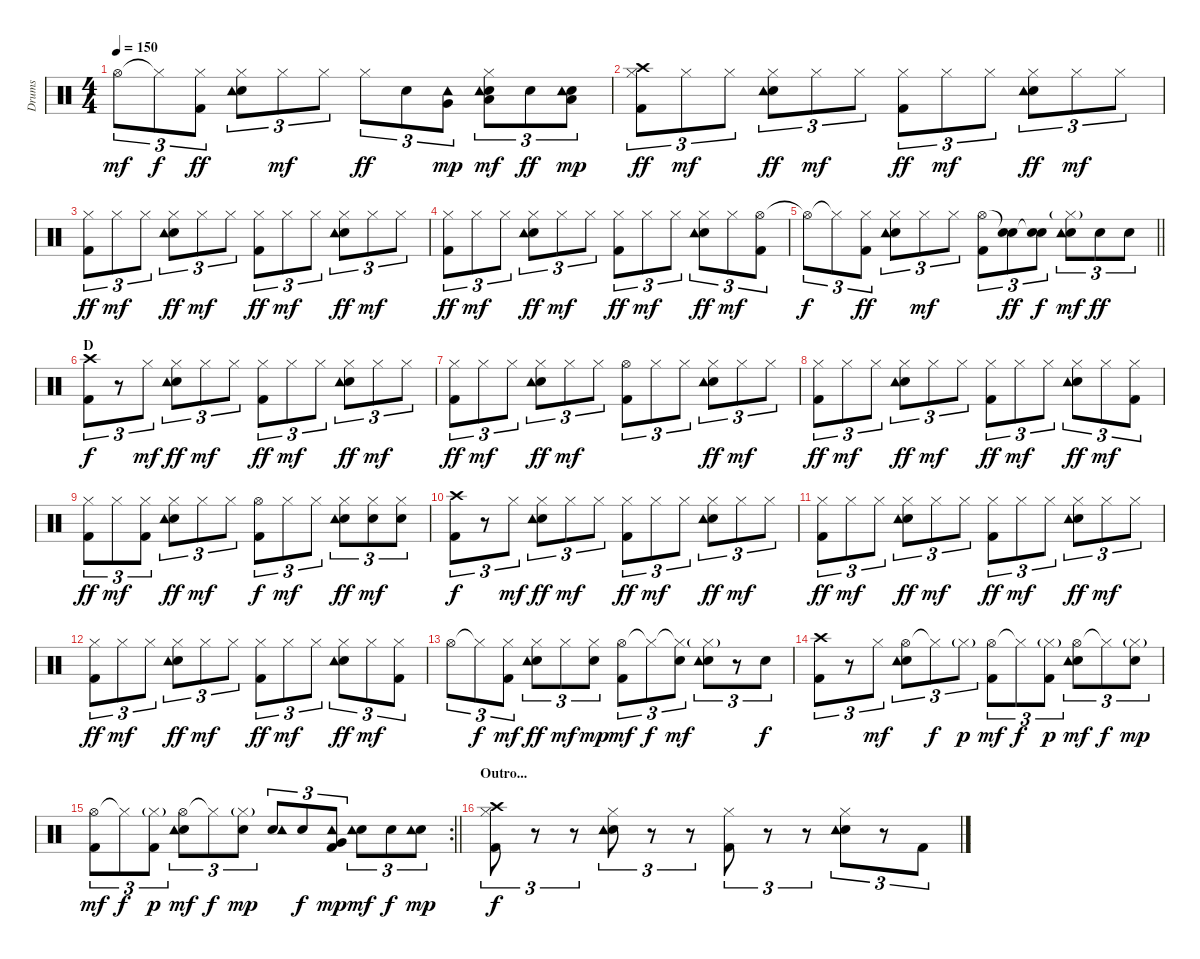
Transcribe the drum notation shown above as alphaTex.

\track ("Drums" "Drums") {instrument percussion}
\staff {score}
\articulation defaults
\ts (4 4)
\tempo 150
\clef neutral
\ks c "Hi-Hat (open)".8{tu (3 2) dy mf} "Hi-Hat (closed)"{t}.8{tu (3 2) dy f}
("Hi-Hat (closed)" "Kick (hit) 2").8{tu (3 2) dy ff} ("Hi-Hat (closed)" "Electric Snare (hit)" "Tambourine (hit)").8{tu (3 2)} "Hi-Hat (closed)".8{tu (3 2) dy mf} "Hi-Hat (closed)".8{tu (3 2)} "Hi-Hat (closed)".8{tu (3 2) dy ff} "Electric Snare (hit)".8{tu (3 2)} ("Very Low Tom (hit)" "Tambourine (hit)").8{tu (3 2) dy mp} ("Hi-Hat (closed)" "Low Floor Tom (hit)" "Electric Snare (hit)" "Tambourine (hit)").8{tu (3 2) dy mf} "Electric Snare (hit)".8{tu (3 2) dy ff} ("Low Floor Tom (hit)" "Electric Snare (hit)" "Tambourine (hit)").8{tu (3 2) dy mp} |
("Crash high (hit)" "Hi-Hat (closed)" "Kick (hit) 2").8{tu (3 2) dy ff} "Hi-Hat (closed)".8{tu (3 2) dy mf} "Hi-Hat (closed)".8{tu (3 2)} ("Hi-Hat (closed)" "Electric Snare (hit)" "Tambourine (hit)").8{tu (3 2) dy ff} "Hi-Hat (closed)".8{tu (3 2) dy mf} "Hi-Hat (closed)".8{tu (3 2)} ("Hi-Hat (closed)" "Kick (hit) 2").8{tu (3 2) dy ff} "Hi-Hat (closed)".8{tu (3 2) dy mf} "Hi-Hat (closed)".8{tu (3 2)} ("Hi-Hat (closed)" "Electric Snare (hit)" "Tambourine (hit)").8{tu (3 2) dy ff} "Hi-Hat (closed)".8{tu (3 2) dy mf} "Hi-Hat (closed)".8{tu (3 2)} |
("Hi-Hat (closed)" "Kick (hit) 2").8{tu (3 2) dy ff} "Hi-Hat (closed)".8{tu (3 2) dy mf} "Hi-Hat (closed)".8{tu (3 2)} ("Hi-Hat (closed)" "Electric Snare (hit)" "Tambourine (hit)").8{tu (3 2) dy ff} "Hi-Hat (closed)".8{tu (3 2) dy mf} "Hi-Hat (closed)".8{tu (3 2)} ("Hi-Hat (closed)" "Kick (hit) 2").8{tu (3 2) dy ff} "Hi-Hat (closed)".8{tu (3 2) dy mf} "Hi-Hat (closed)".8{tu (3 2)} ("Hi-Hat (closed)" "Electric Snare (hit)" "Tambourine (hit)").8{tu (3 2) dy ff} "Hi-Hat (closed)".8{tu (3 2) dy mf} "Hi-Hat (closed)".8{tu (3 2)} |
("Hi-Hat (closed)" "Kick (hit) 2").8{tu (3 2) dy ff} "Hi-Hat (closed)".8{tu (3 2) dy mf} "Hi-Hat (closed)".8{tu (3 2)} ("Hi-Hat (closed)" "Electric Snare (hit)" "Tambourine (hit)").8{tu (3 2) dy ff} "Hi-Hat (closed)".8{tu (3 2) dy mf} "Hi-Hat (closed)".8{tu (3 2)} ("Hi-Hat (closed)" "Kick (hit) 2").8{tu (3 2) dy ff} "Hi-Hat (closed)".8{tu (3 2) dy mf} "Hi-Hat (closed)".8{tu (3 2)} ("Hi-Hat (closed)" "Electric Snare (hit)" "Tambourine (hit)").8{tu (3 2) dy ff} "Hi-Hat (closed)".8{tu (3 2) dy mf} ("Hi-Hat (open)" "Kick (hit) 2").8{tu (3 2)} |
\barLineRight lightlight "Hi-Hat (open)"{t}.8{tu (3 2) dy f} "Hi-Hat (closed)"{t}.8{tu (3 2)}
("Hi-Hat (closed)" "Kick (hit) 2").8{tu (3 2) dy ff} ("Hi-Hat (closed)" "Electric Snare (hit)" "Tambourine (hit)").8{tu (3 2)} "Hi-Hat (closed)".8{tu (3 2) dy mf} "Hi-Hat (closed)".8{tu (3 2)} ("Hi-Hat (open)" "Kick (hit) 2").8{tu (3 2)} ("Snare (hit)"{t} "Electric Snare (hit)").8{tu (3 2) dy ff} ("Snare (hit)"{t} "Electric Snare (hit)").8{tu (3 2) dy f} ("Hi-Hat (closed)"{g} "Electric Snare (hit)" "Tambourine (hit)").8{tu (3 2) dy mf} "Electric Snare (hit)".8{tu (3 2) dy ff} "Electric Snare (hit)".8{tu (3 2)} |
\section ("" "D")
("Crash high (hit)" "Kick (hit) 2").8{tu (3 2) dy f} r.8{tu (3 2)} "Hi-Hat (closed)".8{tu (3 2) dy mf} ("Hi-Hat (closed)" "Electric Snare (hit)" "Tambourine (hit)").8{tu (3 2) dy ff} "Hi-Hat (closed)".8{tu (3 2) dy mf} "Hi-Hat (closed)".8{tu (3 2)} ("Hi-Hat (closed)" "Kick (hit) 2").8{tu (3 2) dy ff} "Hi-Hat (closed)".8{tu (3 2) dy mf} "Hi-Hat (closed)".8{tu (3 2)} ("Hi-Hat (closed)" "Electric Snare (hit)" "Tambourine (hit)").8{tu (3 2) dy ff} "Hi-Hat (closed)".8{tu (3 2) dy mf} "Hi-Hat (closed)".8{tu (3 2)} |
("Hi-Hat (closed)" "Kick (hit) 2").8{tu (3 2) dy ff} "Hi-Hat (closed)".8{tu (3 2) dy mf} "Hi-Hat (closed)".8{tu (3 2)} ("Hi-Hat (closed)" "Electric Snare (hit)" "Tambourine (hit)").8{tu (3 2) dy ff} "Hi-Hat (closed)".8{tu (3 2) dy mf} "Hi-Hat (closed)".8{tu (3 2)} ("Hi-Hat (open)" "Kick (hit) 2").8{tu (3 2)} "Hi-Hat (closed)".8{tu (3 2)} "Hi-Hat (closed)".8{tu (3 2)} ("Hi-Hat (closed)" "Electric Snare (hit)" "Tambourine (hit)").8{tu (3 2) dy ff} "Hi-Hat (closed)".8{tu (3 2) dy mf} "Hi-Hat (closed)".8{tu (3 2)} |
("Hi-Hat (closed)" "Kick (hit) 2").8{tu (3 2) dy ff} "Hi-Hat (closed)".8{tu (3 2) dy mf} "Hi-Hat (closed)".8{tu (3 2)} ("Hi-Hat (closed)" "Electric Snare (hit)" "Tambourine (hit)").8{tu (3 2) dy ff} "Hi-Hat (closed)".8{tu (3 2) dy mf} "Hi-Hat (closed)".8{tu (3 2)} ("Hi-Hat (closed)" "Kick (hit) 2").8{tu (3 2) dy ff} "Hi-Hat (closed)".8{tu (3 2) dy mf} "Hi-Hat (closed)".8{tu (3 2)} ("Hi-Hat (closed)" "Electric Snare (hit)" "Tambourine (hit)").8{tu (3 2) dy ff} "Hi-Hat (closed)".8{tu (3 2) dy mf} ("Hi-Hat (closed)" "Kick (hit) 2").8{tu (3 2)} |
("Hi-Hat (closed)" "Kick (hit) 2").8{tu (3 2) dy ff} "Hi-Hat (closed)".8{tu (3 2) dy mf} ("Hi-Hat (closed)" "Kick (hit) 2").8{tu (3 2)} ("Hi-Hat (closed)" "Electric Snare (hit)" "Tambourine (hit)").8{tu (3 2) dy ff} "Hi-Hat (closed)".8{tu (3 2) dy mf} "Hi-Hat (closed)".8{tu (3 2)} ("Hi-Hat (open)" "Kick (hit) 2").8{tu (3 2) dy f} "Hi-Hat (closed)".8{tu (3 2) dy mf} "Hi-Hat (closed)".8{tu (3 2)} ("Hi-Hat (closed)" "Electric Snare (hit)" "Tambourine (hit)").8{tu (3 2) dy ff} ("Hi-Hat (closed)" "Electric Snare (hit)").8{tu (3 2) dy mf} ("Hi-Hat (closed)" "Electric Snare (hit)").8{tu (3 2)} |
("Crash high (hit)" "Kick (hit) 2").8{tu (3 2) dy f} r.8{tu (3 2)} "Hi-Hat (closed)".8{tu (3 2) dy mf} ("Hi-Hat (closed)" "Electric Snare (hit)" "Tambourine (hit)").8{tu (3 2) dy ff} "Hi-Hat (closed)".8{tu (3 2) dy mf} "Hi-Hat (closed)".8{tu (3 2)} ("Hi-Hat (closed)" "Kick (hit) 2").8{tu (3 2) dy ff} "Hi-Hat (closed)".8{tu (3 2) dy mf} "Hi-Hat (closed)".8{tu (3 2)} ("Hi-Hat (closed)" "Electric Snare (hit)" "Tambourine (hit)").8{tu (3 2) dy ff} "Hi-Hat (closed)".8{tu (3 2) dy mf} "Hi-Hat (closed)".8{tu (3 2)} |
("Hi-Hat (closed)" "Kick (hit) 2").8{tu (3 2) dy ff} "Hi-Hat (closed)".8{tu (3 2) dy mf} "Hi-Hat (closed)".8{tu (3 2)} ("Hi-Hat (closed)" "Electric Snare (hit)" "Tambourine (hit)").8{tu (3 2) dy ff} "Hi-Hat (closed)".8{tu (3 2) dy mf} "Hi-Hat (closed)".8{tu (3 2)} ("Hi-Hat (closed)" "Kick (hit) 2").8{tu (3 2) dy ff} "Hi-Hat (closed)".8{tu (3 2) dy mf} "Hi-Hat (closed)".8{tu (3 2)} ("Hi-Hat (closed)" "Electric Snare (hit)" "Tambourine (hit)").8{tu (3 2) dy ff} "Hi-Hat (closed)".8{tu (3 2) dy mf} "Hi-Hat (closed)".8{tu (3 2)} |
("Hi-Hat (closed)" "Kick (hit) 2").8{tu (3 2) dy ff} "Hi-Hat (closed)".8{tu (3 2) dy mf} "Hi-Hat (closed)".8{tu (3 2)} ("Hi-Hat (closed)" "Electric Snare (hit)" "Tambourine (hit)").8{tu (3 2) dy ff} "Hi-Hat (closed)".8{tu (3 2) dy mf} "Hi-Hat (closed)".8{tu (3 2)} ("Hi-Hat (closed)" "Kick (hit) 2").8{tu (3 2) dy ff} "Hi-Hat (closed)".8{tu (3 2) dy mf} "Hi-Hat (closed)".8{tu (3 2)} ("Hi-Hat (closed)" "Electric Snare (hit)" "Tambourine (hit)").8{tu (3 2) dy ff} "Hi-Hat (closed)".8{tu (3 2) dy mf} ("Hi-Hat (closed)" "Kick (hit) 2").8{tu (3 2)} |
"Hi-Hat (open)".8{tu (3 2)} "Hi-Hat (closed)"{t}.8{tu (3 2) dy f} ("Hi-Hat (closed)" "Kick (hit) 2").8{tu (3 2) dy mf} ("Hi-Hat (closed)" "Electric Snare (hit)" "Tambourine (hit)").8{tu (3 2) dy ff} "Hi-Hat (closed)".8{tu (3 2) dy mf} ("Hi-Hat (closed)" "Electric Snare (hit)").8{tu (3 2) dy mp} ("Hi-Hat (open)" "Kick (hit) 2").8{tu (3 2) dy mf} "Hi-Hat (closed)"{t}.8{tu (3 2) dy f} ("Hi-Hat (closed)"{t} "Electric Snare (hit)").8{tu (3 2) dy mf} ("Hi-Hat (closed)"{g} "Electric Snare (hit)" "Tambourine (hit)").8{tu (3 2)} r.8{tu (3 2)} "Electric Snare (hit)".8{tu (3 2) dy f} |
("Crash high (hit)" "Kick (hit) 2").8{tu (3 2)} r.8{tu (3 2)} "Hi-Hat (closed)".8{tu (3 2) dy mf} ("Hi-Hat (open)" "Electric Snare (hit)" "Tambourine (hit)").8{tu (3 2)} "Hi-Hat (closed)"{t}.8{tu (3 2) dy f} "Hi-Hat (closed)"{g}.8{tu (3 2) dy p} ("Hi-Hat (open)" "Kick (hit) 2").8{tu (3 2) dy mf} "Hi-Hat (closed)"{t}.8{tu (3 2) dy f} ("Hi-Hat (closed)"{g} "Kick (hit) 2").8{tu (3 2) dy p} ("Hi-Hat (open)" "Electric Snare (hit)" "Tambourine (hit)").8{tu (3 2) dy mf} "Hi-Hat (closed)"{t}.8{tu (3 2) dy f} ("Hi-Hat (closed)"{g} "Electric Snare (hit)").8{tu (3 2) dy mp} |
\rc 2
\barLineRight lightlight
("Hi-Hat (open)" "Kick (hit) 2").8{tu (3 2) dy mf} "Hi-Hat (closed)"{t}.8{tu (3 2) dy f} ("Hi-Hat (closed)"{g} "Kick (hit) 2").8{tu (3 2) dy p} ("Hi-Hat (open)" "Electric Snare (hit)" "Tambourine (hit)").8{tu (3 2) dy mf} "Hi-Hat (closed)"{t}.8{tu (3 2) dy f} ("Hi-Hat (closed)"{g} "Electric Snare (hit)").8{tu (3 2) dy mp} ("Electric Snare (hit)" "Tambourine (hit)").8{tu (3 2)} "Electric Snare (hit)".8{tu (3 2) dy f} ("Very Low Tom (hit)" "Kick (hit) 2" "Tambourine (hit)").8{tu (3 2) dy mp} ("Electric Snare (hit)" "Tambourine (hit)").8{tu (3 2) dy mf} "Electric Snare (hit)".8{tu (3 2) dy f} ("Electric Snare (hit)" "Tambourine (hit)").8{tu (3 2) dy mp} |
\section ("" "Outro...")
("Crash high (hit)" "Hi-Hat (closed)" "Kick (hit) 2").8{tu (3 2) dy f} r.8{tu (3 2)} r.8{tu (3 2)} ("Hi-Hat (closed)" "Electric Snare (hit)" "Tambourine (hit)").8{tu (3 2)} r.8{tu (3 2)} r.8{tu (3 2)} ("Hi-Hat (closed)" "Kick (hit) 2").8{tu (3 2)} r.8{tu (3 2)} r.8{tu (3 2)} ("Hi-Hat (closed)" "Electric Snare (hit)" "Tambourine (hit)").8{tu (3 2)} r.8{tu (3 2)} "Kick (hit) 2".8{tu (3 2)}
